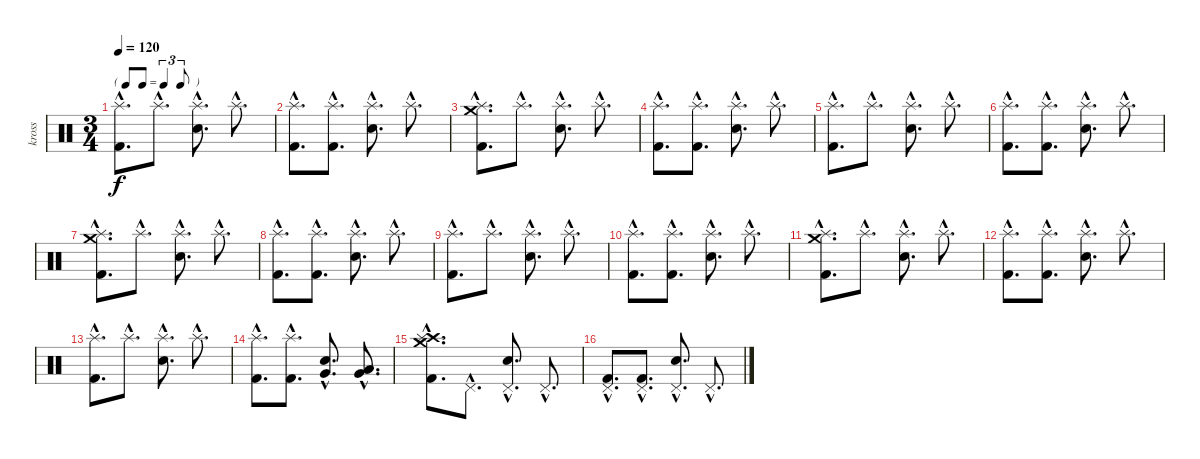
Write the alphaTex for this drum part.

\track ("kross" "kross") {instrument percussion}
\staff {score}
\articulation defaults
\ts (3 4)
\tf triplet8th
\tempo 120
\clef neutral
\ks c
("Splash (hit)"{hac} "Kick (hit) 2"{hac}).8{d dy f} "Splash (hit)"{hac}.8{d} ("Electric Snare (hit)"{hac} "Splash (hit)"{hac}).8{d} "Splash (hit)"{hac}.8{d} |
("Splash (hit)"{hac} "Kick (hit) 2"{hac}).8{d} ("Splash (hit)"{hac} "Kick (hit) 2"{hac}).8{d} ("Electric Snare (hit)"{hac} "Splash (hit)"{hac}).8{d} "Splash (hit)"{hac}.8{d} |
("Splash (hit)"{hac} "Crash medium (hit)"{hac} "Kick (hit) 2"{hac}).8{d} "Splash (hit)"{hac}.8{d} ("Electric Snare (hit)"{hac} "Splash (hit)"{hac}).8{d} "Splash (hit)"{hac}.8{d} |
("Splash (hit)"{hac} "Kick (hit) 2"{hac}).8{d} ("Splash (hit)"{hac} "Kick (hit) 2"{hac}).8{d} ("Electric Snare (hit)"{hac} "Splash (hit)"{hac}).8{d} "Splash (hit)"{hac}.8{d} |
("Splash (hit)"{hac} "Kick (hit) 2"{hac}).8{d} "Splash (hit)"{hac}.8{d} ("Electric Snare (hit)"{hac} "Splash (hit)"{hac}).8{d} "Splash (hit)"{hac}.8{d} |
("Splash (hit)"{hac} "Kick (hit) 2"{hac}).8{d} ("Splash (hit)"{hac} "Kick (hit) 2"{hac}).8{d} ("Electric Snare (hit)"{hac} "Splash (hit)"{hac}).8{d} "Splash (hit)"{hac}.8{d} |
("Splash (hit)"{hac} "Crash medium (hit)"{hac} "Kick (hit) 2"{hac}).8{d} "Splash (hit)"{hac}.8{d} ("Electric Snare (hit)"{hac} "Splash (hit)"{hac}).8{d} "Splash (hit)"{hac}.8{d} |
("Splash (hit)"{hac} "Kick (hit) 2"{hac}).8{d} ("Splash (hit)"{hac} "Kick (hit) 2"{hac}).8{d} ("Electric Snare (hit)"{hac} "Splash (hit)"{hac}).8{d} "Splash (hit)"{hac}.8{d} |
("Splash (hit)"{hac} "Kick (hit) 2"{hac}).8{d} "Splash (hit)"{hac}.8{d} ("Electric Snare (hit)"{hac} "Splash (hit)"{hac}).8{d} "Splash (hit)"{hac}.8{d} |
("Splash (hit)"{hac} "Kick (hit) 2"{hac}).8{d} ("Splash (hit)"{hac} "Kick (hit) 2"{hac}).8{d} ("Electric Snare (hit)"{hac} "Splash (hit)"{hac}).8{d} "Splash (hit)"{hac}.8{d} |
("Splash (hit)"{hac} "Crash medium (hit)"{hac} "Kick (hit) 2"{hac}).8{d} "Splash (hit)"{hac}.8{d} ("Electric Snare (hit)"{hac} "Splash (hit)"{hac}).8{d} "Splash (hit)"{hac}.8{d} |
("Splash (hit)"{hac} "Kick (hit) 2"{hac}).8{d} ("Splash (hit)"{hac} "Kick (hit) 2"{hac}).8{d} ("Electric Snare (hit)"{hac} "Splash (hit)"{hac}).8{d} "Splash (hit)"{hac}.8{d} |
("Splash (hit)"{hac} "Kick (hit) 2"{hac}).8{d} "Splash (hit)"{hac}.8{d} ("Electric Snare (hit)"{hac} "Splash (hit)"{hac}).8{d} "Splash (hit)"{hac}.8{d} |
("Splash (hit)"{hac} "Kick (hit) 2"{hac}).8{d} ("Splash (hit)"{hac} "Kick (hit) 2"{hac}).8{d} ("Electric Snare (hit)"{hac} "Very Low Tom (hit)"{hac}).8{d} ("Low Floor Tom (hit)"{hac} "Very Low Tom (hit)"{hac}).8{d} |
("Crash high (hit)"{hac} "Splash (hit)"{hac} "Crash medium (hit)"{hac} "Kick (hit) 2"{hac}).8{d} "Pedal Hi-Hat (hit)"{hac}.8{d} ("Electric Snare (hit)"{hac} "Pedal Hi-Hat (hit)"{hac}).8{d} "Pedal Hi-Hat (hit)"{hac}.8{d} |
("Pedal Hi-Hat (hit)"{hac} "Kick (hit) 2"{hac}).8{d} ("Pedal Hi-Hat (hit)"{hac} "Kick (hit) 2"{hac}).8{d} ("Electric Snare (hit)"{hac} "Pedal Hi-Hat (hit)"{hac}).8{d} "Pedal Hi-Hat (hit)"{hac}.8{d}
